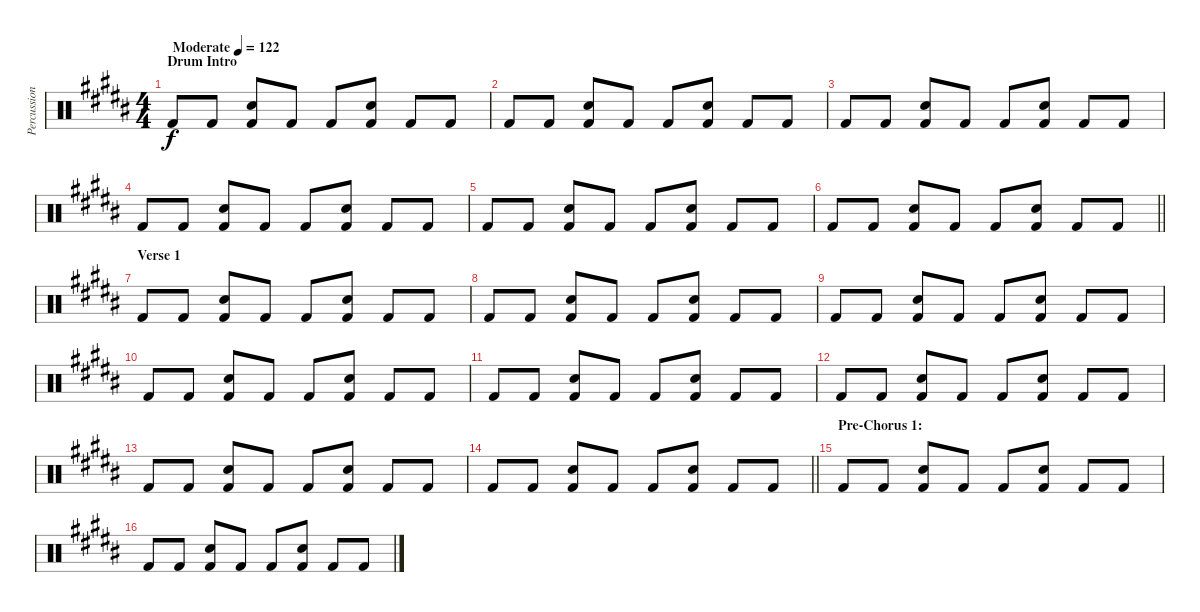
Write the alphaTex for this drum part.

\track ("Percussion" "Percussion") {instrument percussion}
\staff {score}
\articulation defaults
\ts (4 4)
\section ("" "Drum Intro")
\tempo (122 "Moderate")
\clef neutral
\ks b "Kick (hit) 2".8{dy f} "Kick (hit) 2".8
("Kick (hit) 2" "Snare (hit) 2").8 "Kick (hit) 2".8 "Kick (hit) 2".8 ("Kick (hit) 2" "Snare (hit) 2").8 "Kick (hit) 2".8 "Kick (hit) 2".8 |
"Kick (hit) 2".8 "Kick (hit) 2".8 ("Kick (hit) 2" "Snare (hit) 2").8 "Kick (hit) 2".8 "Kick (hit) 2".8 ("Kick (hit) 2" "Snare (hit) 2").8 "Kick (hit) 2".8 "Kick (hit) 2".8 |
"Kick (hit) 2".8 "Kick (hit) 2".8 ("Kick (hit) 2" "Snare (hit) 2").8 "Kick (hit) 2".8 "Kick (hit) 2".8 ("Kick (hit) 2" "Snare (hit) 2").8 "Kick (hit) 2".8 "Kick (hit) 2".8 |
"Kick (hit) 2".8 "Kick (hit) 2".8 ("Kick (hit) 2" "Snare (hit) 2").8 "Kick (hit) 2".8 "Kick (hit) 2".8 ("Kick (hit) 2" "Snare (hit) 2").8 "Kick (hit) 2".8 "Kick (hit) 2".8 |
"Kick (hit) 2".8 "Kick (hit) 2".8 ("Kick (hit) 2" "Snare (hit) 2").8 "Kick (hit) 2".8 "Kick (hit) 2".8 ("Kick (hit) 2" "Snare (hit) 2").8 "Kick (hit) 2".8 "Kick (hit) 2".8 |
\barLineRight lightlight "Kick (hit) 2".8 "Kick (hit) 2".8
("Kick (hit) 2" "Snare (hit) 2").8 "Kick (hit) 2".8 "Kick (hit) 2".8 ("Kick (hit) 2" "Snare (hit) 2").8 "Kick (hit) 2".8 "Kick (hit) 2".8 |
\section ("" "Verse 1")
"Kick (hit) 2".8 "Kick (hit) 2".8 ("Kick (hit) 2" "Snare (hit) 2").8 "Kick (hit) 2".8 "Kick (hit) 2".8 ("Kick (hit) 2" "Snare (hit) 2").8 "Kick (hit) 2".8 "Kick (hit) 2".8 |
"Kick (hit) 2".8 "Kick (hit) 2".8 ("Kick (hit) 2" "Snare (hit) 2").8 "Kick (hit) 2".8 "Kick (hit) 2".8 ("Kick (hit) 2" "Snare (hit) 2").8 "Kick (hit) 2".8 "Kick (hit) 2".8 |
"Kick (hit) 2".8 "Kick (hit) 2".8 ("Kick (hit) 2" "Snare (hit) 2").8 "Kick (hit) 2".8 "Kick (hit) 2".8 ("Kick (hit) 2" "Snare (hit) 2").8 "Kick (hit) 2".8 "Kick (hit) 2".8 |
"Kick (hit) 2".8 "Kick (hit) 2".8 ("Kick (hit) 2" "Snare (hit) 2").8 "Kick (hit) 2".8 "Kick (hit) 2".8 ("Kick (hit) 2" "Snare (hit) 2").8 "Kick (hit) 2".8 "Kick (hit) 2".8 |
"Kick (hit) 2".8 "Kick (hit) 2".8 ("Kick (hit) 2" "Snare (hit) 2").8 "Kick (hit) 2".8 "Kick (hit) 2".8 ("Kick (hit) 2" "Snare (hit) 2").8 "Kick (hit) 2".8 "Kick (hit) 2".8 |
"Kick (hit) 2".8 "Kick (hit) 2".8 ("Kick (hit) 2" "Snare (hit) 2").8 "Kick (hit) 2".8 "Kick (hit) 2".8 ("Kick (hit) 2" "Snare (hit) 2").8 "Kick (hit) 2".8 "Kick (hit) 2".8 |
"Kick (hit) 2".8 "Kick (hit) 2".8 ("Kick (hit) 2" "Snare (hit) 2").8 "Kick (hit) 2".8 "Kick (hit) 2".8 ("Kick (hit) 2" "Snare (hit) 2").8 "Kick (hit) 2".8 "Kick (hit) 2".8 |
\barLineRight lightlight "Kick (hit) 2".8 "Kick (hit) 2".8
("Kick (hit) 2" "Snare (hit) 2").8 "Kick (hit) 2".8 "Kick (hit) 2".8 ("Kick (hit) 2" "Snare (hit) 2").8 "Kick (hit) 2".8 "Kick (hit) 2".8 |
\section ("" "Pre-Chorus 1:")
"Kick (hit) 2".8 "Kick (hit) 2".8 ("Kick (hit) 2" "Snare (hit) 2").8 "Kick (hit) 2".8 "Kick (hit) 2".8 ("Kick (hit) 2" "Snare (hit) 2").8 "Kick (hit) 2".8 "Kick (hit) 2".8 |
"Kick (hit) 2".8 "Kick (hit) 2".8 ("Kick (hit) 2" "Snare (hit) 2").8 "Kick (hit) 2".8 "Kick (hit) 2".8 ("Kick (hit) 2" "Snare (hit) 2").8 "Kick (hit) 2".8 "Kick (hit) 2".8
